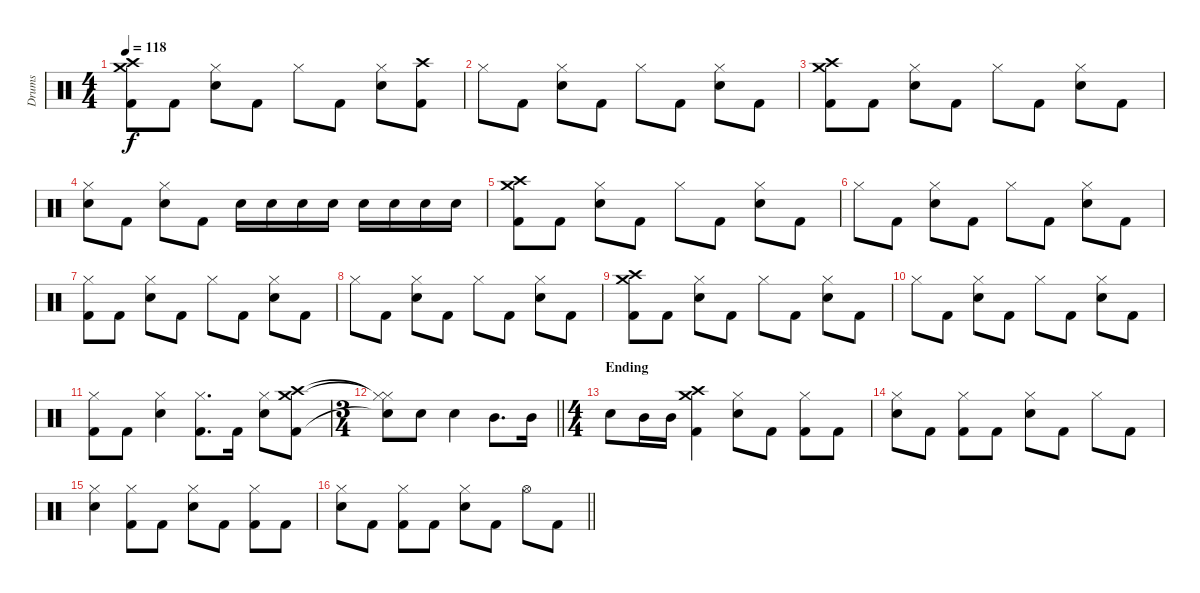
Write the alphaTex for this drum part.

\track ("Drums" "Drums") {instrument percussion}
\staff {score}
\articulation defaults
\ts (4 4)
\tempo 118
\clef neutral
\ks c
("Crash medium (hit)" "Crash high (hit)" "Kick (hit) 2").8{dy f} "Kick (hit) 2".8 ("Hi-Hat (closed)" "Snare (hit) 2").8 "Kick (hit) 2".8 "Hi-Hat (closed)".8 "Kick (hit) 2".8 ("Hi-Hat (closed)" "Snare (hit) 2").8 ("Crash high (hit)" "Kick (hit) 2").8 |
"Hi-Hat (closed)".8 "Kick (hit) 2".8 ("Hi-Hat (closed)" "Snare (hit) 2").8 "Kick (hit) 2".8 "Hi-Hat (closed)".8 "Kick (hit) 2".8 ("Hi-Hat (closed)" "Snare (hit) 2").8 "Kick (hit) 2".8 |
("Crash medium (hit)" "Crash high (hit)" "Kick (hit) 2").8 "Kick (hit) 2".8 ("Hi-Hat (closed)" "Snare (hit) 2").8 "Kick (hit) 2".8 "Hi-Hat (closed)".8 "Kick (hit) 2".8 ("Hi-Hat (closed)" "Snare (hit) 2").8 "Kick (hit) 2".8 |
("Hi-Hat (closed)" "Snare (hit) 2").8 "Kick (hit) 2".8 ("Hi-Hat (closed)" "Snare (hit) 2").8 "Kick (hit) 2".8 "Snare (hit) 2".16 "Snare (hit) 2".16 "Snare (hit) 2".16 "Snare (hit) 2".16 "Snare (hit) 2".16 "Snare (hit) 2".16 "Snare (hit) 2".16 "Snare (hit) 2".16 |
("Crash medium (hit)" "Crash high (hit)" "Kick (hit) 2").8 "Kick (hit) 2".8 ("Hi-Hat (closed)" "Snare (hit) 2").8 "Kick (hit) 2".8 "Hi-Hat (closed)".8 "Kick (hit) 2".8 ("Hi-Hat (closed)" "Snare (hit) 2").8 "Kick (hit) 2".8 |
"Hi-Hat (closed)".8 "Kick (hit) 2".8 ("Hi-Hat (closed)" "Snare (hit) 2").8 "Kick (hit) 2".8 "Hi-Hat (closed)".8 "Kick (hit) 2".8 ("Hi-Hat (closed)" "Snare (hit) 2").8 "Kick (hit) 2".8 |
("Hi-Hat (closed)" "Kick (hit) 2").8 "Kick (hit) 2".8 ("Hi-Hat (closed)" "Snare (hit) 2").8 "Kick (hit) 2".8 "Hi-Hat (closed)".8 "Kick (hit) 2".8 ("Hi-Hat (closed)" "Snare (hit) 2").8 "Kick (hit) 2".8 |
"Hi-Hat (closed)".8 "Kick (hit) 2".8 ("Hi-Hat (closed)" "Snare (hit) 2").8 "Kick (hit) 2".8 "Hi-Hat (closed)".8 "Kick (hit) 2".8 ("Hi-Hat (closed)" "Snare (hit) 2").8 "Kick (hit) 2".8 |
("Crash medium (hit)" "Crash high (hit)" "Kick (hit) 2").8 "Kick (hit) 2".8 ("Hi-Hat (closed)" "Snare (hit) 2").8 "Kick (hit) 2".8 "Hi-Hat (closed)".8 "Kick (hit) 2".8 ("Hi-Hat (closed)" "Snare (hit) 2").8 "Kick (hit) 2".8 |
"Hi-Hat (closed)".8 "Kick (hit) 2".8 ("Hi-Hat (closed)" "Snare (hit) 2").8 "Kick (hit) 2".8 "Hi-Hat (closed)".8 "Kick (hit) 2".8 ("Hi-Hat (closed)" "Snare (hit) 2").8 "Kick (hit) 2".8 |
("Hi-Hat (closed)" "Kick (hit) 2").8 "Kick (hit) 2".8 ("Hi-Hat (closed)" "Snare (hit) 2").4 ("Hi-Hat (closed)" "Kick (hit) 2").8{d} "Kick (hit) 2".16 ("Hi-Hat (closed)" "Snare (hit) 2").8 ("Crash medium (hit)" "Crash high (hit)" "Kick (hit) 2").8 |
\ts (3 4)
\barLineRight lightlight
("Hi-Hat (closed)"{t} "Hi-Hat (closed)"{t} "Snare (hit)"{t}).8 "Snare (hit) 2".8 "Snare (hit) 2".4 "Mid Tom (hit)".8{d} "Mid Tom (hit)".16 |
\ts (4 4)
\section ("" "Ending")
"Snare (hit) 2".8 "Mid Tom (hit)".16 "Mid Tom (hit)".16 ("Crash medium (hit)" "Crash high (hit)" "Kick (hit) 2").4 ("Hi-Hat (closed)" "Snare (hit) 2").8 "Kick (hit) 2".8 ("Hi-Hat (closed)" "Kick (hit) 2").8 "Kick (hit) 2".8 |
("Hi-Hat (closed)" "Snare (hit) 2").8 "Kick (hit) 2".8 ("Hi-Hat (closed)" "Kick (hit) 2").8 "Kick (hit) 2".8 ("Hi-Hat (closed)" "Snare (hit) 2").8 "Kick (hit) 2".8 "Hi-Hat (closed)".8 "Kick (hit) 2".8 |
("Hi-Hat (closed)" "Snare (hit) 2").4 ("Hi-Hat (closed)" "Kick (hit) 2").8 "Kick (hit) 2".8 ("Hi-Hat (closed)" "Snare (hit) 2").8 "Kick (hit) 2".8 ("Hi-Hat (closed)" "Kick (hit) 2").8 "Kick (hit) 2".8 |
\barLineRight lightlight
("Hi-Hat (closed)" "Snare (hit) 2").8 "Kick (hit) 2".8 ("Hi-Hat (closed)" "Kick (hit) 2").8 "Kick (hit) 2".8 ("Hi-Hat (closed)" "Snare (hit) 2").8 "Kick (hit) 2".8 "Hi-Hat (open)".8 "Kick (hit) 2".8
